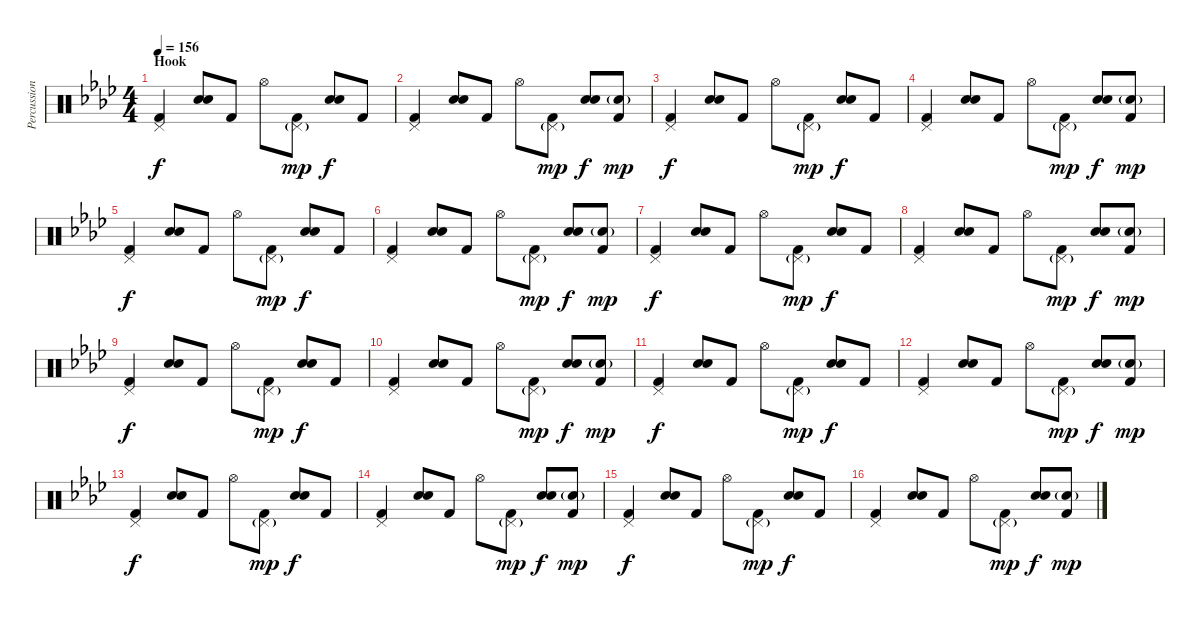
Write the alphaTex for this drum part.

\track ("Percussion" "Percussion") {instrument percussion}
\staff {score}
\articulation defaults
\ts (4 4)
\section ("" "Hook")
\tempo 156
\clef neutral
\ks fminor
("Pedal Hi-Hat (hit)" "Kick (hit) 2").4{dy f} ("Hand Clap (hit)" "Electric Snare (hit)").8 "Kick (hit) 2".8 "Hi-Hat (open)".8 ("Pedal Hi-Hat (hit)"{g} "Kick (hit) 2").8{dy mp} ("Hand Clap (hit)" "Electric Snare (hit)").8{dy f} "Kick (hit) 2".8 |
("Pedal Hi-Hat (hit)" "Kick (hit) 2").4 ("Hand Clap (hit)" "Electric Snare (hit)").8 "Kick (hit) 2".8 "Hi-Hat (open)".8 ("Pedal Hi-Hat (hit)"{g} "Kick (hit) 2").8{dy mp} ("Hand Clap (hit)" "Electric Snare (hit)").8{dy f} ("Hand Clap (hit)"{g} "Kick (hit) 2").8{dy mp} |
("Pedal Hi-Hat (hit)" "Kick (hit) 2").4{dy f} ("Hand Clap (hit)" "Electric Snare (hit)").8 "Kick (hit) 2".8 "Hi-Hat (open)".8 ("Pedal Hi-Hat (hit)"{g} "Kick (hit) 2").8{dy mp} ("Hand Clap (hit)" "Electric Snare (hit)").8{dy f} "Kick (hit) 2".8 |
("Pedal Hi-Hat (hit)" "Kick (hit) 2").4 ("Hand Clap (hit)" "Electric Snare (hit)").8 "Kick (hit) 2".8 "Hi-Hat (open)".8 ("Pedal Hi-Hat (hit)"{g} "Kick (hit) 2").8{dy mp} ("Hand Clap (hit)" "Electric Snare (hit)").8{dy f} ("Hand Clap (hit)"{g} "Kick (hit) 2").8{dy mp} |
("Pedal Hi-Hat (hit)" "Kick (hit) 2").4{dy f} ("Hand Clap (hit)" "Electric Snare (hit)").8 "Kick (hit) 2".8 "Hi-Hat (open)".8 ("Pedal Hi-Hat (hit)"{g} "Kick (hit) 2").8{dy mp} ("Hand Clap (hit)" "Electric Snare (hit)").8{dy f} "Kick (hit) 2".8 |
("Pedal Hi-Hat (hit)" "Kick (hit) 2").4 ("Hand Clap (hit)" "Electric Snare (hit)").8 "Kick (hit) 2".8 "Hi-Hat (open)".8 ("Pedal Hi-Hat (hit)"{g} "Kick (hit) 2").8{dy mp} ("Hand Clap (hit)" "Electric Snare (hit)").8{dy f} ("Hand Clap (hit)"{g} "Kick (hit) 2").8{dy mp} |
("Pedal Hi-Hat (hit)" "Kick (hit) 2").4{dy f} ("Hand Clap (hit)" "Electric Snare (hit)").8 "Kick (hit) 2".8 "Hi-Hat (open)".8 ("Pedal Hi-Hat (hit)"{g} "Kick (hit) 2").8{dy mp} ("Hand Clap (hit)" "Electric Snare (hit)").8{dy f} "Kick (hit) 2".8 |
("Pedal Hi-Hat (hit)" "Kick (hit) 2").4 ("Hand Clap (hit)" "Electric Snare (hit)").8 "Kick (hit) 2".8 "Hi-Hat (open)".8 ("Pedal Hi-Hat (hit)"{g} "Kick (hit) 2").8{dy mp} ("Hand Clap (hit)" "Electric Snare (hit)").8{dy f} ("Hand Clap (hit)"{g} "Kick (hit) 2").8{dy mp} |
("Pedal Hi-Hat (hit)" "Kick (hit) 2").4{dy f} ("Hand Clap (hit)" "Electric Snare (hit)").8 "Kick (hit) 2".8 "Hi-Hat (open)".8 ("Pedal Hi-Hat (hit)"{g} "Kick (hit) 2").8{dy mp} ("Hand Clap (hit)" "Electric Snare (hit)").8{dy f} "Kick (hit) 2".8 |
("Pedal Hi-Hat (hit)" "Kick (hit) 2").4 ("Hand Clap (hit)" "Electric Snare (hit)").8 "Kick (hit) 2".8 "Hi-Hat (open)".8 ("Pedal Hi-Hat (hit)"{g} "Kick (hit) 2").8{dy mp} ("Hand Clap (hit)" "Electric Snare (hit)").8{dy f} ("Hand Clap (hit)"{g} "Kick (hit) 2").8{dy mp} |
("Pedal Hi-Hat (hit)" "Kick (hit) 2").4{dy f} ("Hand Clap (hit)" "Electric Snare (hit)").8 "Kick (hit) 2".8 "Hi-Hat (open)".8 ("Pedal Hi-Hat (hit)"{g} "Kick (hit) 2").8{dy mp} ("Hand Clap (hit)" "Electric Snare (hit)").8{dy f} "Kick (hit) 2".8 |
("Pedal Hi-Hat (hit)" "Kick (hit) 2").4 ("Hand Clap (hit)" "Electric Snare (hit)").8 "Kick (hit) 2".8 "Hi-Hat (open)".8 ("Pedal Hi-Hat (hit)"{g} "Kick (hit) 2").8{dy mp} ("Hand Clap (hit)" "Electric Snare (hit)").8{dy f} ("Hand Clap (hit)"{g} "Kick (hit) 2").8{dy mp} |
("Pedal Hi-Hat (hit)" "Kick (hit) 2").4{dy f} ("Hand Clap (hit)" "Electric Snare (hit)").8 "Kick (hit) 2".8 "Hi-Hat (open)".8 ("Pedal Hi-Hat (hit)"{g} "Kick (hit) 2").8{dy mp} ("Hand Clap (hit)" "Electric Snare (hit)").8{dy f} "Kick (hit) 2".8 |
("Pedal Hi-Hat (hit)" "Kick (hit) 2").4 ("Hand Clap (hit)" "Electric Snare (hit)").8 "Kick (hit) 2".8 "Hi-Hat (open)".8 ("Pedal Hi-Hat (hit)"{g} "Kick (hit) 2").8{dy mp} ("Hand Clap (hit)" "Electric Snare (hit)").8{dy f} ("Hand Clap (hit)"{g} "Kick (hit) 2").8{dy mp} |
("Pedal Hi-Hat (hit)" "Kick (hit) 2").4{dy f} ("Hand Clap (hit)" "Electric Snare (hit)").8 "Kick (hit) 2".8 "Hi-Hat (open)".8 ("Pedal Hi-Hat (hit)"{g} "Kick (hit) 2").8{dy mp} ("Hand Clap (hit)" "Electric Snare (hit)").8{dy f} "Kick (hit) 2".8 |
("Pedal Hi-Hat (hit)" "Kick (hit) 2").4 ("Hand Clap (hit)" "Electric Snare (hit)").8 "Kick (hit) 2".8 "Hi-Hat (open)".8 ("Pedal Hi-Hat (hit)"{g} "Kick (hit) 2").8{dy mp} ("Hand Clap (hit)" "Electric Snare (hit)").8{dy f} ("Hand Clap (hit)"{g} "Kick (hit) 2").8{dy mp}
